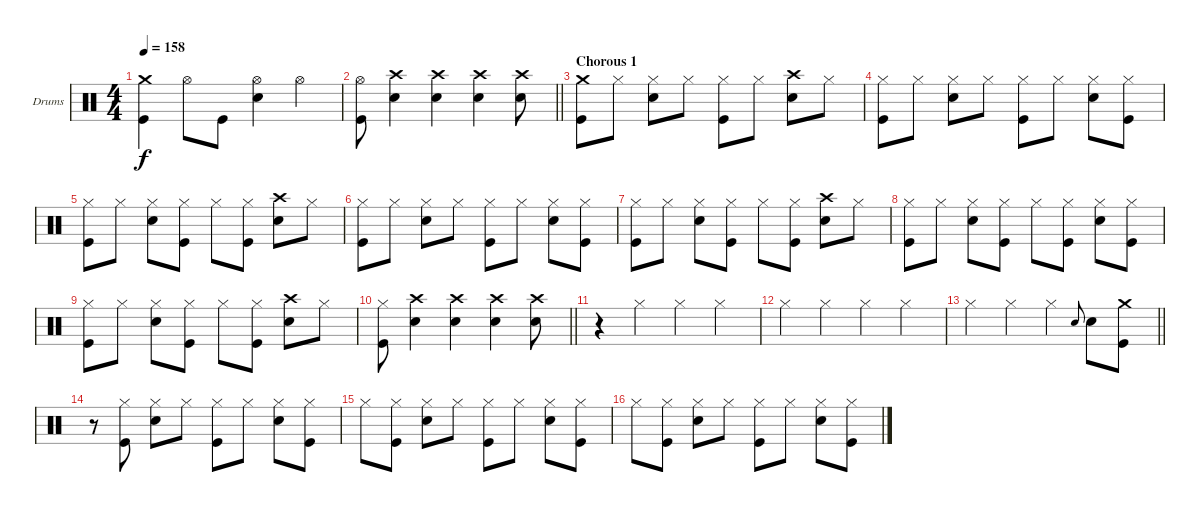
\bracketExtendMode groupsimilarinstruments
\firstSystemTrackNameOrientation horizontal
\otherSystemsTrackNameOrientation horizontal
\track ("Drumkit" "Drums") {instrument percussion}
\staff {score}
\articulation defaults
\ts (4 4)
\tempo 158
\clef neutral
\ks c
("Crash medium (hit)" "Kick (hit)").4{dy f} "Hi-Hat (open)".8 "Kick (hit)".8 ("Hi-Hat (open)" "Snare (hit) 2").4 "Hi-Hat (open)".4 |
\barLineRight lightlight
("Hi-Hat (open)" "Kick (hit)").8 ("Crash high (hit)" "Snare (hit) 2").4 ("Crash high (hit)" "Snare (hit) 2").4 ("Crash high (hit)" "Snare (hit) 2").4 ("Crash high (hit)" "Snare (hit) 2").8 |
\section ("" "Chorous 1")
("Crash medium (hit)" "Kick (hit)").8 "Hi-Hat (closed)".8 ("Hi-Hat (closed)" "Snare (hit) 2").8 "Hi-Hat (closed)".8 ("Hi-Hat (closed)" "Kick (hit)").8 "Hi-Hat (closed)".8 ("Crash high (hit)" "Snare (hit) 2").8 "Hi-Hat (closed)".8 |
("Hi-Hat (closed)" "Kick (hit)").8 "Hi-Hat (closed)".8 ("Hi-Hat (closed)" "Snare (hit) 2").8 "Hi-Hat (closed)".8 ("Hi-Hat (closed)" "Kick (hit)").8 "Hi-Hat (closed)".8 ("Hi-Hat (closed)" "Snare (hit) 2").8 ("Hi-Hat (closed)" "Kick (hit)").8 |
("Hi-Hat (closed)" "Kick (hit)").8 "Hi-Hat (closed)".8 ("Hi-Hat (closed)" "Snare (hit) 2").8 ("Hi-Hat (closed)" "Kick (hit)").8 "Hi-Hat (closed)".8 ("Hi-Hat (closed)" "Kick (hit)").8 ("Crash high (hit)" "Snare (hit) 2").8 "Hi-Hat (closed)".8 |
("Hi-Hat (closed)" "Kick (hit)").8 "Hi-Hat (closed)".8 ("Hi-Hat (closed)" "Snare (hit) 2").8 "Hi-Hat (closed)".8 ("Hi-Hat (closed)" "Kick (hit)").8 "Hi-Hat (closed)".8 ("Hi-Hat (closed)" "Snare (hit) 2").8 ("Hi-Hat (closed)" "Kick (hit)").8 |
("Hi-Hat (closed)" "Kick (hit)").8 "Hi-Hat (closed)".8 ("Hi-Hat (closed)" "Snare (hit) 2").8 ("Hi-Hat (closed)" "Kick (hit)").8 "Hi-Hat (closed)".8 ("Hi-Hat (closed)" "Kick (hit)").8 ("Crash high (hit)" "Snare (hit) 2").8 "Hi-Hat (closed)".8 |
("Hi-Hat (closed)" "Kick (hit)").8 "Hi-Hat (closed)".8 ("Hi-Hat (closed)" "Snare (hit) 2").8 ("Hi-Hat (closed)" "Kick (hit)").8 "Hi-Hat (closed)".8 ("Hi-Hat (closed)" "Kick (hit)").8 ("Hi-Hat (closed)" "Snare (hit) 2").8 ("Hi-Hat (closed)" "Kick (hit)").8 |
("Hi-Hat (closed)" "Kick (hit)").8 "Hi-Hat (closed)".8 ("Hi-Hat (closed)" "Snare (hit) 2").8 ("Hi-Hat (closed)" "Kick (hit)").8 "Hi-Hat (closed)".8 ("Hi-Hat (closed)" "Kick (hit)").8 ("Crash high (hit)" "Snare (hit) 2").8 "Hi-Hat (closed)".8 |
\barLineRight lightlight
("Hi-Hat (closed)" "Kick (hit)").8 ("Crash high (hit)" "Snare (hit) 2").4 ("Crash high (hit)" "Snare (hit) 2").4 ("Crash high (hit)" "Snare (hit) 2").4 ("Crash high (hit)" "Snare (hit) 2").8 |
\section ("" "")
r.4 "Hi-Hat (closed)".4 "Hi-Hat (closed)".4 "Hi-Hat (closed)".4 |
"Hi-Hat (closed)".4 "Hi-Hat (closed)".4 "Hi-Hat (closed)".4 "Hi-Hat (closed)".4 |
\barLineRight lightlight "Hi-Hat (closed)".4 "Hi-Hat (closed)".4 "Hi-Hat (closed)".4 "Snare (hit) 2".8{gr onbeat} "Snare (hit) 2".8
("Crash medium (hit)" "Kick (hit)").8 |
\section ("" "")
r.8 ("Hi-Hat (closed)" "Kick (hit)").8 ("Hi-Hat (closed)" "Snare (hit) 2").8 "Hi-Hat (closed)".8 ("Hi-Hat (closed)" "Kick (hit)").8 "Hi-Hat (closed)".8 ("Hi-Hat (closed)" "Snare (hit) 2").8 ("Hi-Hat (closed)" "Kick (hit)").8 |
"Hi-Hat (closed)".8 ("Hi-Hat (closed)" "Kick (hit)").8 ("Hi-Hat (closed)" "Snare (hit) 2").8 "Hi-Hat (closed)".8 ("Hi-Hat (closed)" "Kick (hit)").8 "Hi-Hat (closed)".8 ("Hi-Hat (closed)" "Snare (hit) 2").8 ("Hi-Hat (closed)" "Kick (hit)").8 |
"Hi-Hat (closed)".8 ("Hi-Hat (closed)" "Kick (hit)").8 ("Hi-Hat (closed)" "Snare (hit) 2").8 "Hi-Hat (closed)".8 ("Hi-Hat (closed)" "Kick (hit)").8 "Hi-Hat (closed)".8 ("Hi-Hat (closed)" "Snare (hit) 2").8 ("Hi-Hat (closed)" "Kick (hit)").8
